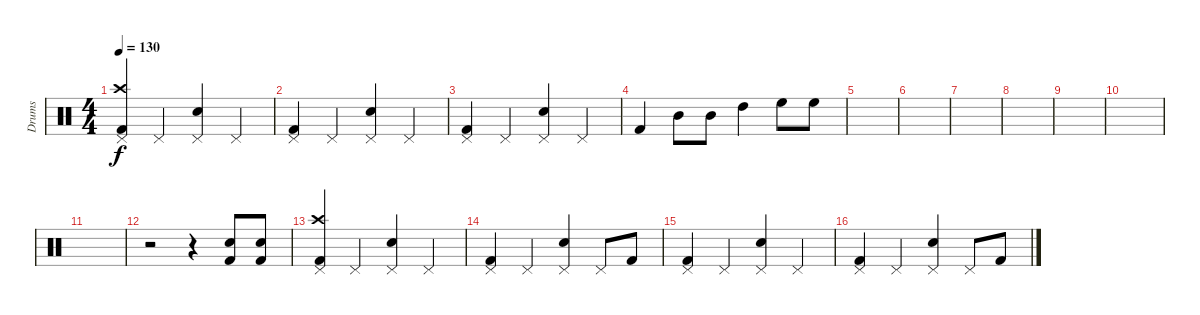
\track ("Drums" "Drums") {instrument percussion}
\staff {score}
\articulation defaults
\ts (4 4)
\tempo 130
\clef neutral
\ks c
("Pedal Hi-Hat (hit)" "Crash high (hit)" "Kick (hit) 2").4{dy f} "Pedal Hi-Hat (hit)".4 ("Pedal Hi-Hat (hit)" "Snare (hit) 2").4 "Pedal Hi-Hat (hit)".4 |
("Pedal Hi-Hat (hit)" "Kick (hit) 2").4 "Pedal Hi-Hat (hit)".4 ("Pedal Hi-Hat (hit)" "Snare (hit) 2").4 "Pedal Hi-Hat (hit)".4 |
("Pedal Hi-Hat (hit)" "Kick (hit) 2").4 "Pedal Hi-Hat (hit)".4 ("Pedal Hi-Hat (hit)" "Snare (hit) 2").4 "Pedal Hi-Hat (hit)".4 |
"Kick (hit) 2".4 "Mid Tom (hit)".8 "Mid Tom (hit)".8 "High Tom (hit)".4 "High Floor Tom (hit)".8 "High Floor Tom (hit)".8 |
|
|
|
|
|
|
|
r.2 r.4 ("Snare (hit) 2" "Kick (hit) 2").8 ("Snare (hit) 2" "Kick (hit) 2").8 |
("Pedal Hi-Hat (hit)" "Crash high (hit)" "Kick (hit) 2").4 "Pedal Hi-Hat (hit)".4 ("Pedal Hi-Hat (hit)" "Snare (hit) 2").4 "Pedal Hi-Hat (hit)".4 |
("Pedal Hi-Hat (hit)" "Kick (hit) 2").4 "Pedal Hi-Hat (hit)".4 ("Pedal Hi-Hat (hit)" "Snare (hit) 2").4 "Pedal Hi-Hat (hit)".8 "Kick (hit) 2".8 |
("Pedal Hi-Hat (hit)" "Kick (hit) 2").4 "Pedal Hi-Hat (hit)".4 ("Pedal Hi-Hat (hit)" "Snare (hit) 2").4 "Pedal Hi-Hat (hit)".4 |
("Pedal Hi-Hat (hit)" "Kick (hit) 2").4 "Pedal Hi-Hat (hit)".4 ("Pedal Hi-Hat (hit)" "Snare (hit) 2").4 "Pedal Hi-Hat (hit)".8 "Kick (hit) 2".8
